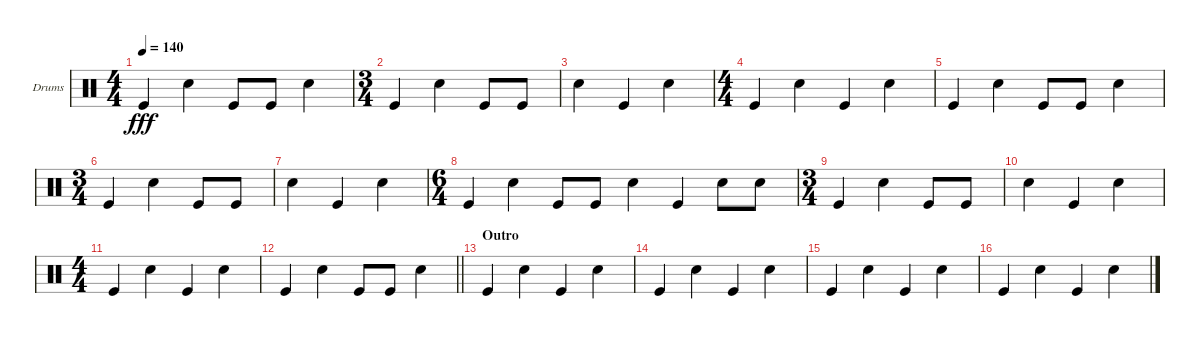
\bracketExtendMode groupsimilarinstruments
\firstSystemTrackNameOrientation horizontal
\otherSystemsTrackNameOrientation horizontal
\track ("Drumkit" "Drums") {instrument percussion}
\staff {score}
\articulation defaults
\ts (4 4)
\tempo 140
\clef neutral
\ks c "Kick (hit)".4{dy fff} "Snare (hit) 2".4 "Kick (hit)".8 "Kick (hit)".8 "Snare (hit) 2".4
|
\ts (3 4)
\beaming (8 2 2 2 2)
"Kick (hit)".4 "Snare (hit) 2".4 "Kick (hit)".8 "Kick (hit)".8 |
"Snare (hit) 2".4 "Kick (hit)".4 "Snare (hit) 2".4 |
\ts (4 4)
\beaming (8 2 2 2 2)
"Kick (hit)".4 "Snare (hit) 2".4 "Kick (hit)".4 "Snare (hit) 2".4 |
"Kick (hit)".4 "Snare (hit) 2".4 "Kick (hit)".8 "Kick (hit)".8 "Snare (hit) 2".4 |
\ts (3 4)
\beaming (8 2 2 2 2)
"Kick (hit)".4 "Snare (hit) 2".4 "Kick (hit)".8 "Kick (hit)".8 |
\beaming (8 2 2 2)
"Snare (hit) 2".4 "Kick (hit)".4 "Snare (hit) 2".4 |
\ts (6 4)
\beaming (8 6 6)
"Kick (hit)".4 "Snare (hit) 2".4 "Kick (hit)".8 "Kick (hit)".8 "Snare (hit) 2".4 "Kick (hit)".4 "Snare (hit) 2".8 "Snare (hit) 2".8 |
\ts (3 4)
\beaming (8 2 2 2)
"Kick (hit)".4 "Snare (hit) 2".4 "Kick (hit)".8 "Kick (hit)".8 |
"Snare (hit) 2".4 "Kick (hit)".4 "Snare (hit) 2".4 |
\ts (4 4)
\beaming (8 2 2 2 2)
"Kick (hit)".4 "Snare (hit) 2".4 "Kick (hit)".4 "Snare (hit) 2".4 |
\barLineRight lightlight "Kick (hit)".4 "Snare (hit) 2".4 "Kick (hit)".8 "Kick (hit)".8 "Snare (hit) 2".4
|
\section ("" "Outro")
"Kick (hit)".4 "Snare (hit) 2".4 "Kick (hit)".4 "Snare (hit) 2".4 |
"Kick (hit)".4 "Snare (hit) 2".4 "Kick (hit)".4 "Snare (hit) 2".4 |
"Kick (hit)".4 "Snare (hit) 2".4 "Kick (hit)".4 "Snare (hit) 2".4 |
"Kick (hit)".4 "Snare (hit) 2".4 "Kick (hit)".4 "Snare (hit) 2".4
